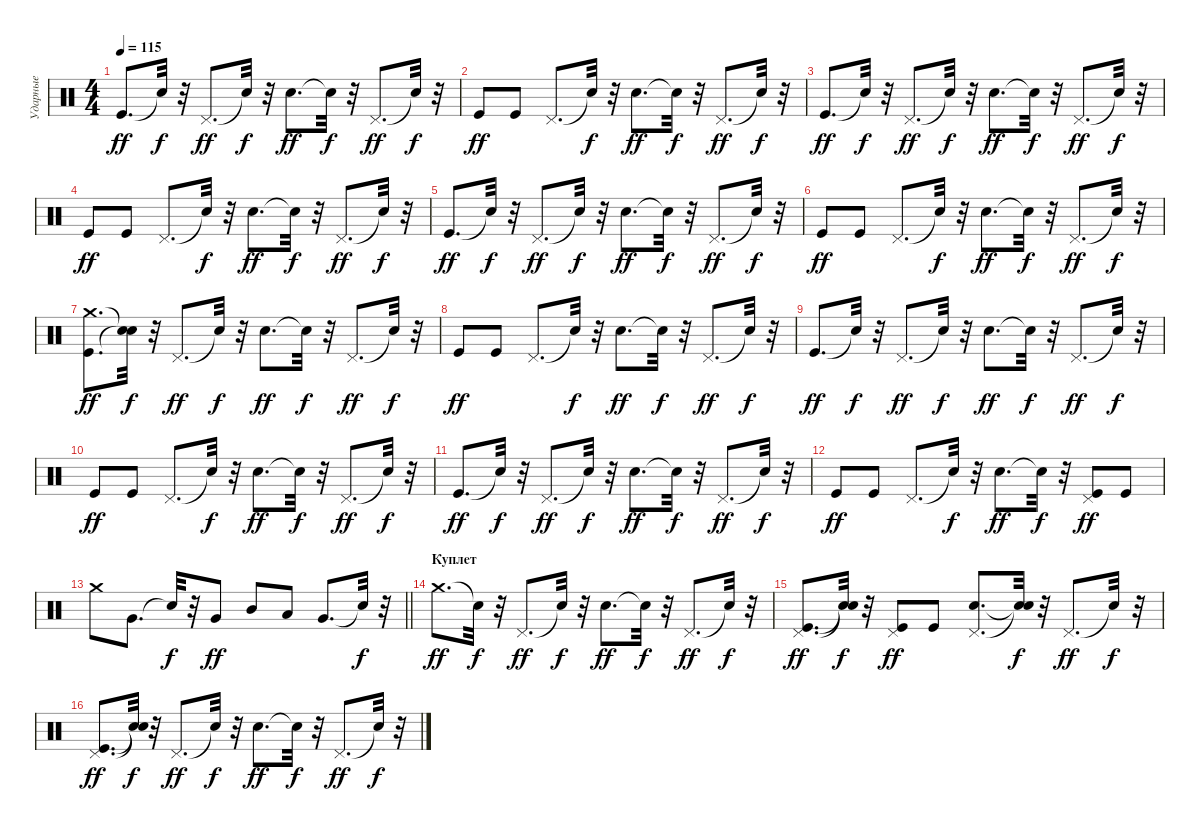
\track ("Ударные" "Ударные") {instrument percussion}
\staff {score}
\articulation defaults
\ts (4 4)
\tempo 115
\clef neutral
\ks c "Kick (hit)".8{d dy ff} "Snare (hit)"{t}.32{dy f}
r.32 "Pedal Hi-Hat (hit)".8{d dy ff} "Snare (hit)"{t}.32{dy f} r.32 "Electric Snare (hit)".8{d dy ff} "Snare (hit)"{t}.32{dy f} r.32 "Pedal Hi-Hat (hit)".8{d dy ff} "Snare (hit)"{t}.32{dy f} r.32 |
"Kick (hit)".8{dy ff} "Kick (hit)".8 "Pedal Hi-Hat (hit)".8{d} "Snare (hit)"{t}.32{dy f} r.32 "Electric Snare (hit)".8{d dy ff} "Snare (hit)"{t}.32{dy f} r.32 "Pedal Hi-Hat (hit)".8{d dy ff} "Snare (hit)"{t}.32{dy f} r.32 |
"Kick (hit)".8{d dy ff} "Snare (hit)"{t}.32{dy f} r.32 "Pedal Hi-Hat (hit)".8{d dy ff} "Snare (hit)"{t}.32{dy f} r.32 "Electric Snare (hit)".8{d dy ff} "Snare (hit)"{t}.32{dy f} r.32 "Pedal Hi-Hat (hit)".8{d dy ff} "Snare (hit)"{t}.32{dy f} r.32 |
"Kick (hit)".8{dy ff} "Kick (hit)".8 "Pedal Hi-Hat (hit)".8{d} "Snare (hit)"{t}.32{dy f} r.32 "Electric Snare (hit)".8{d dy ff} "Snare (hit)"{t}.32{dy f} r.32 "Pedal Hi-Hat (hit)".8{d dy ff} "Snare (hit)"{t}.32{dy f} r.32 |
"Kick (hit)".8{d dy ff} "Snare (hit)"{t}.32{dy f} r.32 "Pedal Hi-Hat (hit)".8{d dy ff} "Snare (hit)"{t}.32{dy f} r.32 "Electric Snare (hit)".8{d dy ff} "Snare (hit)"{t}.32{dy f} r.32 "Pedal Hi-Hat (hit)".8{d dy ff} "Snare (hit)"{t}.32{dy f} r.32 |
"Kick (hit)".8{dy ff} "Kick (hit)".8 "Pedal Hi-Hat (hit)".8{d} "Snare (hit)"{t}.32{dy f} r.32 "Electric Snare (hit)".8{d dy ff} "Snare (hit)"{t}.32{dy f} r.32 "Pedal Hi-Hat (hit)".8{d dy ff} "Snare (hit)"{t}.32{dy f} r.32 |
("Kick (hit)" "Crash medium (hit)").8{d dy ff} ("Snare (hit)"{t} "Snare (hit)"{t}).32{dy f} r.32 "Pedal Hi-Hat (hit)".8{d dy ff} "Snare (hit)"{t}.32{dy f} r.32 "Electric Snare (hit)".8{d dy ff} "Snare (hit)"{t}.32{dy f} r.32 "Pedal Hi-Hat (hit)".8{d dy ff} "Snare (hit)"{t}.32{dy f} r.32 |
"Kick (hit)".8{dy ff} "Kick (hit)".8 "Pedal Hi-Hat (hit)".8{d} "Snare (hit)"{t}.32{dy f} r.32 "Electric Snare (hit)".8{d dy ff} "Snare (hit)"{t}.32{dy f} r.32 "Pedal Hi-Hat (hit)".8{d dy ff} "Snare (hit)"{t}.32{dy f} r.32 |
"Kick (hit)".8{d dy ff} "Snare (hit)"{t}.32{dy f} r.32 "Pedal Hi-Hat (hit)".8{d dy ff} "Snare (hit)"{t}.32{dy f} r.32 "Electric Snare (hit)".8{d dy ff} "Snare (hit)"{t}.32{dy f} r.32 "Pedal Hi-Hat (hit)".8{d dy ff} "Snare (hit)"{t}.32{dy f} r.32 |
"Kick (hit)".8{dy ff} "Kick (hit)".8 "Pedal Hi-Hat (hit)".8{d} "Snare (hit)"{t}.32{dy f} r.32 "Electric Snare (hit)".8{d dy ff} "Snare (hit)"{t}.32{dy f} r.32 "Pedal Hi-Hat (hit)".8{d dy ff} "Snare (hit)"{t}.32{dy f} r.32 |
"Kick (hit)".8{d dy ff} "Snare (hit)"{t}.32{dy f} r.32 "Pedal Hi-Hat (hit)".8{d dy ff} "Snare (hit)"{t}.32{dy f} r.32 "Electric Snare (hit)".8{d dy ff} "Snare (hit)"{t}.32{dy f} r.32 "Pedal Hi-Hat (hit)".8{d dy ff} "Snare (hit)"{t}.32{dy f} r.32 |
"Kick (hit)".8{dy ff} "Kick (hit)".8 "Pedal Hi-Hat (hit)".8{d} "Snare (hit)"{t}.32{dy f} r.32 "Electric Snare (hit)".8{d dy ff} "Snare (hit)"{t}.32{dy f} r.32 ("Kick (hit)" "Pedal Hi-Hat (hit)").8{dy ff} "Kick (hit)".8 |
\barLineRight lightlight "Crash medium (hit)".8 "Very Low Tom (hit)".8{d} "Snare (hit)"{t}.32{dy f}
r.32 "Very Low Tom (hit)".8{dy ff} "Mid Tom (hit)".8 "Low Tom (hit)".8 "Very Low Tom (hit)".8{d} "Snare (hit)"{t}.32{dy f} r.32 |
\section ("" "Куплет")
"Crash medium (hit)".8{d dy ff} "Snare (hit)"{t}.32{dy f} r.32 "Pedal Hi-Hat (hit)".8{d dy ff} "Snare (hit)"{t}.32{dy f} r.32 "Electric Snare (hit)".8{d dy ff} "Snare (hit)"{t}.32{dy f} r.32 "Pedal Hi-Hat (hit)".8{d dy ff} "Snare (hit)"{t}.32{dy f} r.32 |
("Kick (hit)" "Pedal Hi-Hat (hit)").8{d dy ff} ("Snare (hit)"{t} "Snare (hit)"{t}).32{dy f} r.32 ("Kick (hit)" "Pedal Hi-Hat (hit)").8{dy ff} "Kick (hit)".8 ("Electric Snare (hit)" "Pedal Hi-Hat (hit)").8{d} ("Snare (hit)"{t} "Snare (hit)"{t}).32{dy f} r.32 "Pedal Hi-Hat (hit)".8{d dy ff} "Snare (hit)"{t}.32{dy f} r.32 |
("Kick (hit)" "Pedal Hi-Hat (hit)").8{d dy ff} ("Snare (hit)"{t} "Snare (hit)"{t}).32{dy f} r.32 "Pedal Hi-Hat (hit)".8{d dy ff} "Snare (hit)"{t}.32{dy f} r.32 "Electric Snare (hit)".8{d dy ff} "Snare (hit)"{t}.32{dy f} r.32 "Pedal Hi-Hat (hit)".8{d dy ff} "Snare (hit)"{t}.32{dy f} r.32
